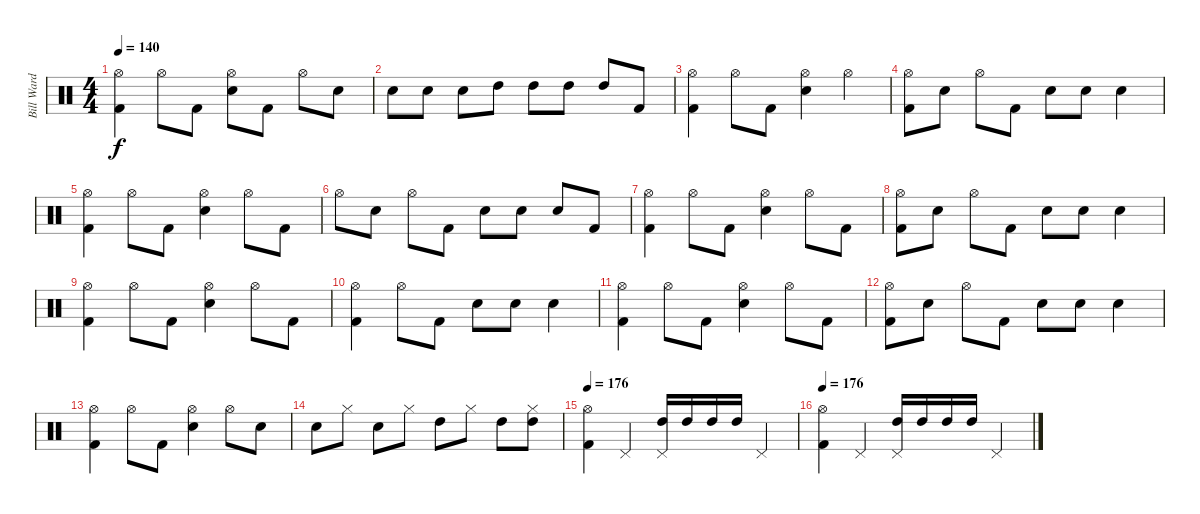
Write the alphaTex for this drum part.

\track ("Bill Ward" "Bill Ward") {instrument percussion}
\staff {score}
\articulation defaults
\ts (4 4)
\tempo 140
\clef neutral
\ks c
("Hi-Hat (open)" "Kick (hit) 2").4{dy f} "Hi-Hat (open)".8 "Kick (hit) 2".8 ("Hi-Hat (open)" "Snare (hit) 2").8 "Kick (hit) 2".8 "Hi-Hat (open)".8 "Snare (hit) 2".8 |
"Snare (hit) 2".8 "Snare (hit) 2".8 "Snare (hit) 2".8 "High Tom (hit)".8 "High Tom (hit)".8 "High Tom (hit)".8 "High Tom (hit)".8 "Kick (hit) 2".8 |
("Hi-Hat (open)" "Kick (hit) 2").4 "Hi-Hat (open)".8 "Kick (hit) 2".8 ("Hi-Hat (open)" "Snare (hit) 2").4 "Hi-Hat (open)".4 |
("Hi-Hat (open)" "Kick (hit) 2").8 "Snare (hit) 2".8 "Hi-Hat (open)".8 "Kick (hit) 2".8 "Snare (hit) 2".8 "Snare (hit) 2".8 "Snare (hit) 2".4 |
("Hi-Hat (open)" "Kick (hit) 2").4 "Hi-Hat (open)".8 "Kick (hit) 2".8 ("Hi-Hat (open)" "Snare (hit) 2").4 "Hi-Hat (open)".8 "Kick (hit) 2".8 |
"Hi-Hat (open)".8 "Snare (hit) 2".8 "Hi-Hat (open)".8 "Kick (hit) 2".8 "Snare (hit) 2".8 "Snare (hit) 2".8 "Snare (hit) 2".8 "Kick (hit) 2".8 |
("Hi-Hat (open)" "Kick (hit) 2").4 "Hi-Hat (open)".8 "Kick (hit) 2".8 ("Hi-Hat (open)" "Snare (hit) 2").4 "Hi-Hat (open)".8 "Kick (hit) 2".8 |
("Hi-Hat (open)" "Kick (hit) 2").8 "Snare (hit) 2".8 "Hi-Hat (open)".8 "Kick (hit) 2".8 "Snare (hit) 2".8 "Snare (hit) 2".8 "Snare (hit) 2".4 |
("Hi-Hat (open)" "Kick (hit) 2").4 "Hi-Hat (open)".8 "Kick (hit) 2".8 ("Hi-Hat (open)" "Snare (hit) 2").4 "Hi-Hat (open)".8 "Kick (hit) 2".8 |
("Hi-Hat (open)" "Kick (hit) 2").4 "Hi-Hat (open)".8 "Kick (hit) 2".8 "Snare (hit) 2".8 "Snare (hit) 2".8 "Snare (hit) 2".4 |
("Hi-Hat (open)" "Kick (hit) 2").4 "Hi-Hat (open)".8 "Kick (hit) 2".8 ("Hi-Hat (open)" "Snare (hit) 2").4 "Hi-Hat (open)".8 "Kick (hit) 2".8 |
("Hi-Hat (open)" "Kick (hit) 2").8 "Snare (hit) 2".8 "Hi-Hat (open)".8 "Kick (hit) 2".8 "Snare (hit) 2".8 "Snare (hit) 2".8 "Snare (hit) 2".4 |
("Hi-Hat (open)" "Kick (hit) 2").4 "Hi-Hat (open)".8 "Kick (hit) 2".8 ("Hi-Hat (open)" "Snare (hit) 2").4 "Hi-Hat (open)".8 "Snare (hit) 2".8 |
"Snare (hit) 2".8 "Hi-Hat (closed)".8 "Snare (hit) 2".8 "Hi-Hat (closed)".8 "High Tom (hit)".8 "Hi-Hat (closed)".8 "High Tom (hit)".8 ("Hi-Hat (closed)" "High Tom (hit)").8 |
\tempo 176
("Hi-Hat (open)" "Kick (hit) 2").4 "Pedal Hi-Hat (hit)".4 ("Pedal Hi-Hat (hit)" "High Tom (hit)").16 "High Tom (hit)".16 "High Tom (hit)".16 "High Tom (hit)".16 "Pedal Hi-Hat (hit)".4 |
\tempo 176
("Hi-Hat (open)" "Kick (hit) 2").4 "Pedal Hi-Hat (hit)".4 ("Pedal Hi-Hat (hit)" "High Tom (hit)").16 "High Tom (hit)".16 "High Tom (hit)".16 "High Tom (hit)".16 "Pedal Hi-Hat (hit)".4
